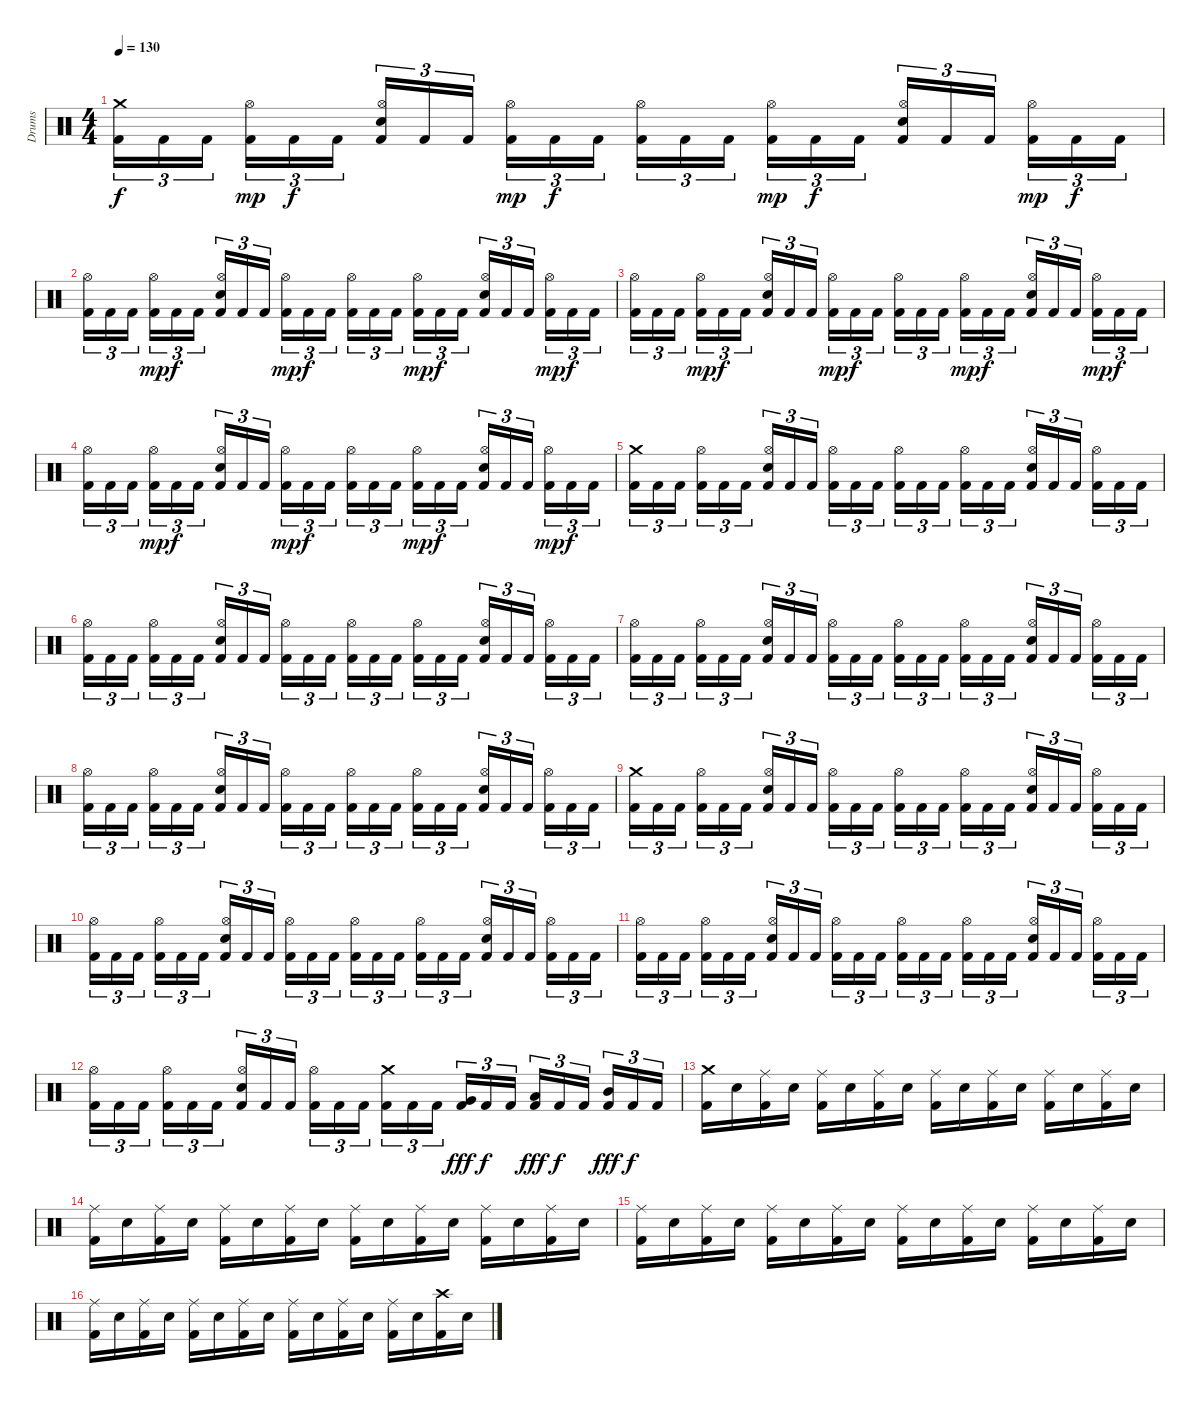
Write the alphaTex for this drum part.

\track ("Drums" "Drums") {instrument percussion}
\staff {score}
\articulation defaults
\ts (4 4)
\tempo 130
\clef neutral
\ks c
("Kick (hit) 2" "Crash medium (hit)").16{tu (3 2) dy f} "Kick (hit) 2".16{tu (3 2)} "Kick (hit) 2".16{tu (3 2) beam splitsecondary} ("Kick (hit) 2" "Hi-Hat (open)").16{tu (3 2) dy mp} "Kick (hit) 2".16{tu (3 2) dy f} "Kick (hit) 2".16{tu (3 2)} ("Kick (hit) 2" "Electric Snare (hit)" "Hi-Hat (open)").16{tu (3 2)} "Kick (hit) 2".16{tu (3 2)} "Kick (hit) 2".16{tu (3 2) beam splitsecondary} ("Kick (hit) 2" "Hi-Hat (open)").16{tu (3 2) dy mp} "Kick (hit) 2".16{tu (3 2) dy f} "Kick (hit) 2".16{tu (3 2)} ("Kick (hit) 2" "Hi-Hat (open)").16{tu (3 2)} "Kick (hit) 2".16{tu (3 2)} "Kick (hit) 2".16{tu (3 2) beam splitsecondary} ("Kick (hit) 2" "Hi-Hat (open)").16{tu (3 2) dy mp} "Kick (hit) 2".16{tu (3 2) dy f} "Kick (hit) 2".16{tu (3 2)} ("Kick (hit) 2" "Electric Snare (hit)" "Hi-Hat (open)").16{tu (3 2)} "Kick (hit) 2".16{tu (3 2)} "Kick (hit) 2".16{tu (3 2) beam splitsecondary} ("Kick (hit) 2" "Hi-Hat (open)").16{tu (3 2) dy mp} "Kick (hit) 2".16{tu (3 2) dy f} "Kick (hit) 2".16{tu (3 2)} |
("Kick (hit) 2" "Hi-Hat (open)").16{tu (3 2)} "Kick (hit) 2".16{tu (3 2)} "Kick (hit) 2".16{tu (3 2) beam splitsecondary} ("Kick (hit) 2" "Hi-Hat (open)").16{tu (3 2) dy mp} "Kick (hit) 2".16{tu (3 2) dy f} "Kick (hit) 2".16{tu (3 2)} ("Kick (hit) 2" "Electric Snare (hit)" "Hi-Hat (open)").16{tu (3 2)} "Kick (hit) 2".16{tu (3 2)} "Kick (hit) 2".16{tu (3 2) beam splitsecondary} ("Kick (hit) 2" "Hi-Hat (open)").16{tu (3 2) dy mp} "Kick (hit) 2".16{tu (3 2) dy f} "Kick (hit) 2".16{tu (3 2)} ("Kick (hit) 2" "Hi-Hat (open)").16{tu (3 2)} "Kick (hit) 2".16{tu (3 2)} "Kick (hit) 2".16{tu (3 2) beam splitsecondary} ("Kick (hit) 2" "Hi-Hat (open)").16{tu (3 2) dy mp} "Kick (hit) 2".16{tu (3 2) dy f} "Kick (hit) 2".16{tu (3 2)} ("Kick (hit) 2" "Electric Snare (hit)" "Hi-Hat (open)").16{tu (3 2)} "Kick (hit) 2".16{tu (3 2)} "Kick (hit) 2".16{tu (3 2) beam splitsecondary} ("Kick (hit) 2" "Hi-Hat (open)").16{tu (3 2) dy mp} "Kick (hit) 2".16{tu (3 2) dy f} "Kick (hit) 2".16{tu (3 2)} |
("Kick (hit) 2" "Hi-Hat (open)").16{tu (3 2)} "Kick (hit) 2".16{tu (3 2)} "Kick (hit) 2".16{tu (3 2) beam splitsecondary} ("Kick (hit) 2" "Hi-Hat (open)").16{tu (3 2) dy mp} "Kick (hit) 2".16{tu (3 2) dy f} "Kick (hit) 2".16{tu (3 2)} ("Kick (hit) 2" "Electric Snare (hit)" "Hi-Hat (open)").16{tu (3 2)} "Kick (hit) 2".16{tu (3 2)} "Kick (hit) 2".16{tu (3 2) beam splitsecondary} ("Kick (hit) 2" "Hi-Hat (open)").16{tu (3 2) dy mp} "Kick (hit) 2".16{tu (3 2) dy f} "Kick (hit) 2".16{tu (3 2)} ("Kick (hit) 2" "Hi-Hat (open)").16{tu (3 2)} "Kick (hit) 2".16{tu (3 2)} "Kick (hit) 2".16{tu (3 2) beam splitsecondary} ("Kick (hit) 2" "Hi-Hat (open)").16{tu (3 2) dy mp} "Kick (hit) 2".16{tu (3 2) dy f} "Kick (hit) 2".16{tu (3 2)} ("Kick (hit) 2" "Electric Snare (hit)" "Hi-Hat (open)").16{tu (3 2)} "Kick (hit) 2".16{tu (3 2)} "Kick (hit) 2".16{tu (3 2) beam splitsecondary} ("Kick (hit) 2" "Hi-Hat (open)").16{tu (3 2) dy mp} "Kick (hit) 2".16{tu (3 2) dy f} "Kick (hit) 2".16{tu (3 2)} |
("Kick (hit) 2" "Hi-Hat (open)").16{tu (3 2)} "Kick (hit) 2".16{tu (3 2)} "Kick (hit) 2".16{tu (3 2) beam splitsecondary} ("Kick (hit) 2" "Hi-Hat (open)").16{tu (3 2) dy mp} "Kick (hit) 2".16{tu (3 2) dy f} "Kick (hit) 2".16{tu (3 2)} ("Kick (hit) 2" "Electric Snare (hit)" "Hi-Hat (open)").16{tu (3 2)} "Kick (hit) 2".16{tu (3 2)} "Kick (hit) 2".16{tu (3 2) beam splitsecondary} ("Kick (hit) 2" "Hi-Hat (open)").16{tu (3 2) dy mp} "Kick (hit) 2".16{tu (3 2) dy f} "Kick (hit) 2".16{tu (3 2)} ("Kick (hit) 2" "Hi-Hat (open)").16{tu (3 2)} "Kick (hit) 2".16{tu (3 2)} "Kick (hit) 2".16{tu (3 2) beam splitsecondary} ("Kick (hit) 2" "Hi-Hat (open)").16{tu (3 2) dy mp} "Kick (hit) 2".16{tu (3 2) dy f} "Kick (hit) 2".16{tu (3 2)} ("Kick (hit) 2" "Electric Snare (hit)" "Hi-Hat (open)").16{tu (3 2)} "Kick (hit) 2".16{tu (3 2)} "Kick (hit) 2".16{tu (3 2) beam splitsecondary} ("Kick (hit) 2" "Hi-Hat (open)").16{tu (3 2) dy mp} "Kick (hit) 2".16{tu (3 2) dy f} "Kick (hit) 2".16{tu (3 2)} |
("Kick (hit) 2" "Crash medium (hit)").16{tu (3 2)} "Kick (hit) 2".16{tu (3 2)} "Kick (hit) 2".16{tu (3 2) beam splitsecondary} ("Kick (hit) 2" "Hi-Hat (open)").16{tu (3 2)} "Kick (hit) 2".16{tu (3 2)} "Kick (hit) 2".16{tu (3 2)} ("Kick (hit) 2" "Electric Snare (hit)" "Hi-Hat (open)").16{tu (3 2)} "Kick (hit) 2".16{tu (3 2)} "Kick (hit) 2".16{tu (3 2) beam splitsecondary} ("Kick (hit) 2" "Hi-Hat (open)").16{tu (3 2)} "Kick (hit) 2".16{tu (3 2)} "Kick (hit) 2".16{tu (3 2)} ("Kick (hit) 2" "Hi-Hat (open)").16{tu (3 2)} "Kick (hit) 2".16{tu (3 2)} "Kick (hit) 2".16{tu (3 2) beam splitsecondary} ("Kick (hit) 2" "Hi-Hat (open)").16{tu (3 2)} "Kick (hit) 2".16{tu (3 2)} "Kick (hit) 2".16{tu (3 2)} ("Kick (hit) 2" "Electric Snare (hit)" "Hi-Hat (open)").16{tu (3 2)} "Kick (hit) 2".16{tu (3 2)} "Kick (hit) 2".16{tu (3 2) beam splitsecondary} ("Kick (hit) 2" "Hi-Hat (open)").16{tu (3 2)} "Kick (hit) 2".16{tu (3 2)} "Kick (hit) 2".16{tu (3 2)} |
("Kick (hit) 2" "Hi-Hat (open)").16{tu (3 2)} "Kick (hit) 2".16{tu (3 2)} "Kick (hit) 2".16{tu (3 2) beam splitsecondary} ("Kick (hit) 2" "Hi-Hat (open)").16{tu (3 2)} "Kick (hit) 2".16{tu (3 2)} "Kick (hit) 2".16{tu (3 2)} ("Kick (hit) 2" "Electric Snare (hit)" "Hi-Hat (open)").16{tu (3 2)} "Kick (hit) 2".16{tu (3 2)} "Kick (hit) 2".16{tu (3 2) beam splitsecondary} ("Kick (hit) 2" "Hi-Hat (open)").16{tu (3 2)} "Kick (hit) 2".16{tu (3 2)} "Kick (hit) 2".16{tu (3 2)} ("Kick (hit) 2" "Hi-Hat (open)").16{tu (3 2)} "Kick (hit) 2".16{tu (3 2)} "Kick (hit) 2".16{tu (3 2) beam splitsecondary} ("Kick (hit) 2" "Hi-Hat (open)").16{tu (3 2)} "Kick (hit) 2".16{tu (3 2)} "Kick (hit) 2".16{tu (3 2)} ("Kick (hit) 2" "Electric Snare (hit)" "Hi-Hat (open)").16{tu (3 2)} "Kick (hit) 2".16{tu (3 2)} "Kick (hit) 2".16{tu (3 2) beam splitsecondary} ("Kick (hit) 2" "Hi-Hat (open)").16{tu (3 2)} "Kick (hit) 2".16{tu (3 2)} "Kick (hit) 2".16{tu (3 2)} |
("Kick (hit) 2" "Hi-Hat (open)").16{tu (3 2)} "Kick (hit) 2".16{tu (3 2)} "Kick (hit) 2".16{tu (3 2) beam splitsecondary} ("Kick (hit) 2" "Hi-Hat (open)").16{tu (3 2)} "Kick (hit) 2".16{tu (3 2)} "Kick (hit) 2".16{tu (3 2)} ("Kick (hit) 2" "Electric Snare (hit)" "Hi-Hat (open)").16{tu (3 2)} "Kick (hit) 2".16{tu (3 2)} "Kick (hit) 2".16{tu (3 2) beam splitsecondary} ("Kick (hit) 2" "Hi-Hat (open)").16{tu (3 2)} "Kick (hit) 2".16{tu (3 2)} "Kick (hit) 2".16{tu (3 2)} ("Kick (hit) 2" "Hi-Hat (open)").16{tu (3 2)} "Kick (hit) 2".16{tu (3 2)} "Kick (hit) 2".16{tu (3 2) beam splitsecondary} ("Kick (hit) 2" "Hi-Hat (open)").16{tu (3 2)} "Kick (hit) 2".16{tu (3 2)} "Kick (hit) 2".16{tu (3 2)} ("Kick (hit) 2" "Electric Snare (hit)" "Hi-Hat (open)").16{tu (3 2)} "Kick (hit) 2".16{tu (3 2)} "Kick (hit) 2".16{tu (3 2) beam splitsecondary} ("Kick (hit) 2" "Hi-Hat (open)").16{tu (3 2)} "Kick (hit) 2".16{tu (3 2)} "Kick (hit) 2".16{tu (3 2)} |
("Kick (hit) 2" "Hi-Hat (open)").16{tu (3 2)} "Kick (hit) 2".16{tu (3 2)} "Kick (hit) 2".16{tu (3 2) beam splitsecondary} ("Kick (hit) 2" "Hi-Hat (open)").16{tu (3 2)} "Kick (hit) 2".16{tu (3 2)} "Kick (hit) 2".16{tu (3 2)} ("Kick (hit) 2" "Electric Snare (hit)" "Hi-Hat (open)").16{tu (3 2)} "Kick (hit) 2".16{tu (3 2)} "Kick (hit) 2".16{tu (3 2) beam splitsecondary} ("Kick (hit) 2" "Hi-Hat (open)").16{tu (3 2)} "Kick (hit) 2".16{tu (3 2)} "Kick (hit) 2".16{tu (3 2)} ("Kick (hit) 2" "Hi-Hat (open)").16{tu (3 2)} "Kick (hit) 2".16{tu (3 2)} "Kick (hit) 2".16{tu (3 2) beam splitsecondary} ("Kick (hit) 2" "Hi-Hat (open)").16{tu (3 2)} "Kick (hit) 2".16{tu (3 2)} "Kick (hit) 2".16{tu (3 2)} ("Kick (hit) 2" "Electric Snare (hit)" "Hi-Hat (open)").16{tu (3 2)} "Kick (hit) 2".16{tu (3 2)} "Kick (hit) 2".16{tu (3 2) beam splitsecondary} ("Kick (hit) 2" "Hi-Hat (open)").16{tu (3 2)} "Kick (hit) 2".16{tu (3 2)} "Kick (hit) 2".16{tu (3 2)} |
("Kick (hit) 2" "Crash medium (hit)").16{tu (3 2)} "Kick (hit) 2".16{tu (3 2)} "Kick (hit) 2".16{tu (3 2) beam splitsecondary} ("Kick (hit) 2" "Hi-Hat (open)").16{tu (3 2)} "Kick (hit) 2".16{tu (3 2)} "Kick (hit) 2".16{tu (3 2)} ("Kick (hit) 2" "Electric Snare (hit)" "Hi-Hat (open)").16{tu (3 2)} "Kick (hit) 2".16{tu (3 2)} "Kick (hit) 2".16{tu (3 2) beam splitsecondary} ("Kick (hit) 2" "Hi-Hat (open)").16{tu (3 2)} "Kick (hit) 2".16{tu (3 2)} "Kick (hit) 2".16{tu (3 2)} ("Kick (hit) 2" "Hi-Hat (open)").16{tu (3 2)} "Kick (hit) 2".16{tu (3 2)} "Kick (hit) 2".16{tu (3 2) beam splitsecondary} ("Kick (hit) 2" "Hi-Hat (open)").16{tu (3 2)} "Kick (hit) 2".16{tu (3 2)} "Kick (hit) 2".16{tu (3 2)} ("Kick (hit) 2" "Electric Snare (hit)" "Hi-Hat (open)").16{tu (3 2)} "Kick (hit) 2".16{tu (3 2)} "Kick (hit) 2".16{tu (3 2) beam splitsecondary} ("Kick (hit) 2" "Hi-Hat (open)").16{tu (3 2)} "Kick (hit) 2".16{tu (3 2)} "Kick (hit) 2".16{tu (3 2)} |
("Kick (hit) 2" "Hi-Hat (open)").16{tu (3 2)} "Kick (hit) 2".16{tu (3 2)} "Kick (hit) 2".16{tu (3 2) beam splitsecondary} ("Kick (hit) 2" "Hi-Hat (open)").16{tu (3 2)} "Kick (hit) 2".16{tu (3 2)} "Kick (hit) 2".16{tu (3 2)} ("Kick (hit) 2" "Electric Snare (hit)" "Hi-Hat (open)").16{tu (3 2)} "Kick (hit) 2".16{tu (3 2)} "Kick (hit) 2".16{tu (3 2) beam splitsecondary} ("Kick (hit) 2" "Hi-Hat (open)").16{tu (3 2)} "Kick (hit) 2".16{tu (3 2)} "Kick (hit) 2".16{tu (3 2)} ("Kick (hit) 2" "Hi-Hat (open)").16{tu (3 2)} "Kick (hit) 2".16{tu (3 2)} "Kick (hit) 2".16{tu (3 2) beam splitsecondary} ("Kick (hit) 2" "Hi-Hat (open)").16{tu (3 2)} "Kick (hit) 2".16{tu (3 2)} "Kick (hit) 2".16{tu (3 2)} ("Kick (hit) 2" "Electric Snare (hit)" "Hi-Hat (open)").16{tu (3 2)} "Kick (hit) 2".16{tu (3 2)} "Kick (hit) 2".16{tu (3 2) beam splitsecondary} ("Kick (hit) 2" "Hi-Hat (open)").16{tu (3 2)} "Kick (hit) 2".16{tu (3 2)} "Kick (hit) 2".16{tu (3 2)} |
("Kick (hit) 2" "Hi-Hat (open)").16{tu (3 2)} "Kick (hit) 2".16{tu (3 2)} "Kick (hit) 2".16{tu (3 2) beam splitsecondary} ("Kick (hit) 2" "Hi-Hat (open)").16{tu (3 2)} "Kick (hit) 2".16{tu (3 2)} "Kick (hit) 2".16{tu (3 2)} ("Kick (hit) 2" "Electric Snare (hit)" "Hi-Hat (open)").16{tu (3 2)} "Kick (hit) 2".16{tu (3 2)} "Kick (hit) 2".16{tu (3 2) beam splitsecondary} ("Kick (hit) 2" "Hi-Hat (open)").16{tu (3 2)} "Kick (hit) 2".16{tu (3 2)} "Kick (hit) 2".16{tu (3 2)} ("Kick (hit) 2" "Hi-Hat (open)").16{tu (3 2)} "Kick (hit) 2".16{tu (3 2)} "Kick (hit) 2".16{tu (3 2) beam splitsecondary} ("Kick (hit) 2" "Hi-Hat (open)").16{tu (3 2)} "Kick (hit) 2".16{tu (3 2)} "Kick (hit) 2".16{tu (3 2)} ("Kick (hit) 2" "Electric Snare (hit)" "Hi-Hat (open)").16{tu (3 2)} "Kick (hit) 2".16{tu (3 2)} "Kick (hit) 2".16{tu (3 2) beam splitsecondary} ("Kick (hit) 2" "Hi-Hat (open)").16{tu (3 2)} "Kick (hit) 2".16{tu (3 2)} "Kick (hit) 2".16{tu (3 2)} |
("Kick (hit) 2" "Hi-Hat (open)").16{tu (3 2)} "Kick (hit) 2".16{tu (3 2)} "Kick (hit) 2".16{tu (3 2) beam splitsecondary} ("Kick (hit) 2" "Hi-Hat (open)").16{tu (3 2)} "Kick (hit) 2".16{tu (3 2)} "Kick (hit) 2".16{tu (3 2)} ("Kick (hit) 2" "Electric Snare (hit)" "Hi-Hat (open)").16{tu (3 2)} "Kick (hit) 2".16{tu (3 2)} "Kick (hit) 2".16{tu (3 2) beam splitsecondary} ("Kick (hit) 2" "Hi-Hat (open)").16{tu (3 2)} "Kick (hit) 2".16{tu (3 2)} "Kick (hit) 2".16{tu (3 2)} ("Kick (hit) 2" "Crash medium (hit)").16{tu (3 2)} "Kick (hit) 2".16{tu (3 2)} "Kick (hit) 2".16{tu (3 2) beam splitsecondary} ("Kick (hit) 2" "Very Low Tom (hit)").16{tu (3 2) dy fff} "Kick (hit) 2".16{tu (3 2) dy f} "Kick (hit) 2".16{tu (3 2)} ("Kick (hit) 2" "Low Tom (hit)").16{tu (3 2) dy fff} "Kick (hit) 2".16{tu (3 2) dy f} "Kick (hit) 2".16{tu (3 2) beam splitsecondary} ("Kick (hit) 2" "Mid Tom (hit)").16{tu (3 2) dy fff} "Kick (hit) 2".16{tu (3 2) dy f} "Kick (hit) 2".16{tu (3 2)} |
("Kick (hit) 2" "Crash medium (hit)").16 "Electric Snare (hit)".16 ("Kick (hit) 2" "Ride (middle)").16 "Electric Snare (hit)".16 ("Kick (hit) 2" "Ride (middle)").16 "Electric Snare (hit)".16 ("Kick (hit) 2" "Ride (middle)").16 "Electric Snare (hit)".16 ("Kick (hit) 2" "Ride (middle)").16 "Electric Snare (hit)".16 ("Kick (hit) 2" "Ride (middle)").16 "Electric Snare (hit)".16 ("Kick (hit) 2" "Ride (middle)").16 "Electric Snare (hit)".16 ("Kick (hit) 2" "Ride (middle)").16 "Electric Snare (hit)".16 |
("Kick (hit) 2" "Ride (middle)").16 "Electric Snare (hit)".16 ("Kick (hit) 2" "Ride (middle)").16 "Electric Snare (hit)".16 ("Kick (hit) 2" "Ride (middle)").16 "Electric Snare (hit)".16 ("Kick (hit) 2" "Ride (middle)").16 "Electric Snare (hit)".16 ("Kick (hit) 2" "Ride (middle)").16 "Electric Snare (hit)".16 ("Kick (hit) 2" "Ride (middle)").16 "Electric Snare (hit)".16 ("Kick (hit) 2" "Ride (middle)").16 "Electric Snare (hit)".16 ("Kick (hit) 2" "Ride (middle)").16 "Electric Snare (hit)".16 |
("Kick (hit) 2" "Ride (middle)").16 "Electric Snare (hit)".16 ("Kick (hit) 2" "Ride (middle)").16 "Electric Snare (hit)".16 ("Kick (hit) 2" "Ride (middle)").16 "Electric Snare (hit)".16 ("Kick (hit) 2" "Ride (middle)").16 "Electric Snare (hit)".16 ("Kick (hit) 2" "Ride (middle)").16 "Electric Snare (hit)".16 ("Kick (hit) 2" "Ride (middle)").16 "Electric Snare (hit)".16 ("Kick (hit) 2" "Ride (middle)").16 "Electric Snare (hit)".16 ("Kick (hit) 2" "Ride (middle)").16 "Electric Snare (hit)".16 |
("Kick (hit) 2" "Ride (middle)").16 "Electric Snare (hit)".16 ("Kick (hit) 2" "Ride (middle)").16 "Electric Snare (hit)".16 ("Kick (hit) 2" "Ride (middle)").16 "Electric Snare (hit)".16 ("Kick (hit) 2" "Ride (middle)").16 "Electric Snare (hit)".16 ("Kick (hit) 2" "Ride (middle)").16 "Electric Snare (hit)".16 ("Kick (hit) 2" "Ride (middle)").16 "Electric Snare (hit)".16 ("Kick (hit) 2" "Ride (middle)").16 "Electric Snare (hit)".16 ("Kick (hit) 2" "Crash high (hit)").16 "Electric Snare (hit)".16
